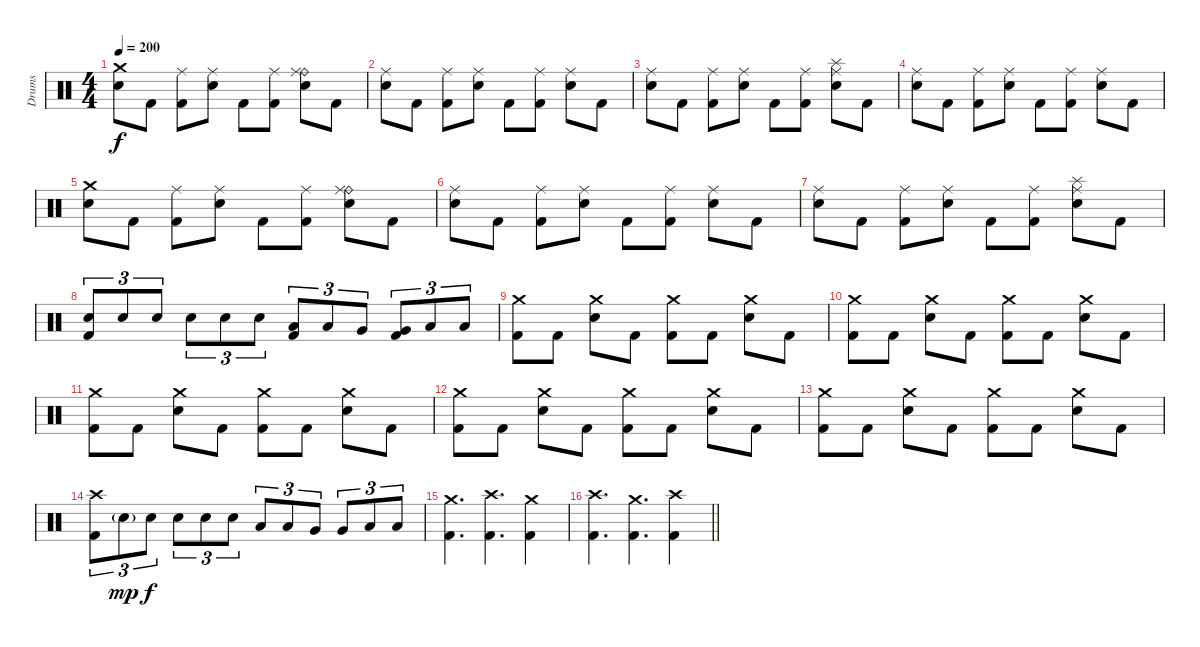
\track ("Drums" "Drums") {instrument percussion}
\staff {score}
\articulation defaults
\ts (4 4)
\tempo 200
\clef neutral
\ks c
("Crash medium (hit)" "Electric Snare (hit)").8{dy f} "Kick (hit) 2".8 ("Ride (middle)" "Kick (hit) 2").8 ("Ride (middle)" "Electric Snare (hit)").8 "Kick (hit) 2".8 ("Ride (middle)" "Kick (hit) 2").8 ("Ride (bell)" "Ride (middle)" "Electric Snare (hit)").8 "Kick (hit) 2".8 |
("Ride (middle)" "Electric Snare (hit)").8 "Kick (hit) 2".8 ("Ride (middle)" "Kick (hit) 2").8 ("Ride (middle)" "Electric Snare (hit)").8 "Kick (hit) 2".8 ("Ride (middle)" "Kick (hit) 2").8 ("Ride (middle)" "Electric Snare (hit)").8 "Kick (hit) 2".8 |
("Ride (middle)" "Electric Snare (hit)").8 "Kick (hit) 2".8 ("Ride (middle)" "Kick (hit) 2").8 ("Ride (middle)" "Electric Snare (hit)").8 "Kick (hit) 2".8 ("Ride (middle)" "Kick (hit) 2").8 ("Ride (middle)" "Splash (hit)" "Electric Snare (hit)").8 "Kick (hit) 2".8 |
("Ride (middle)" "Electric Snare (hit)").8 "Kick (hit) 2".8 ("Ride (middle)" "Kick (hit) 2").8 ("Ride (middle)" "Electric Snare (hit)").8 "Kick (hit) 2".8 ("Ride (middle)" "Kick (hit) 2").8 ("Ride (middle)" "Electric Snare (hit)").8 "Kick (hit) 2".8 |
("Crash medium (hit)" "Electric Snare (hit)").8 "Kick (hit) 2".8 ("Ride (middle)" "Kick (hit) 2").8 ("Ride (middle)" "Electric Snare (hit)").8 "Kick (hit) 2".8 ("Ride (middle)" "Kick (hit) 2").8 ("Ride (bell)" "Ride (middle)" "Electric Snare (hit)").8 "Kick (hit) 2".8 |
("Ride (middle)" "Electric Snare (hit)").8 "Kick (hit) 2".8 ("Ride (middle)" "Kick (hit) 2").8 ("Ride (middle)" "Electric Snare (hit)").8 "Kick (hit) 2".8 ("Ride (middle)" "Kick (hit) 2").8 ("Ride (middle)" "Electric Snare (hit)").8 "Kick (hit) 2".8 |
("Ride (middle)" "Electric Snare (hit)").8 "Kick (hit) 2".8 ("Ride (middle)" "Kick (hit) 2").8 ("Ride (middle)" "Electric Snare (hit)").8 "Kick (hit) 2".8 ("Ride (middle)" "Kick (hit) 2").8 ("Ride (middle)" "Splash (hit)" "Electric Snare (hit)").8 "Kick (hit) 2".8 |
("Electric Snare (hit)" "Kick (hit) 2").8{tu (3 2)} "Electric Snare (hit)".8{tu (3 2)} "Electric Snare (hit)".8{tu (3 2)} "Electric Snare (hit)".8{tu (3 2)} "Electric Snare (hit)".8{tu (3 2)} "Electric Snare (hit)".8{tu (3 2)} ("Low Tom (hit)" "Kick (hit) 2").8{tu (3 2)} "Low Tom (hit)".8{tu (3 2)} "Very Low Tom (hit)".8{tu (3 2)} ("Very Low Tom (hit)" "Kick (hit) 2").8{tu (3 2)} "Low Floor Tom (hit)".8{tu (3 2)} "Low Floor Tom (hit)".8{tu (3 2)} |
("Crash medium (hit)" "Kick (hit) 2").8 "Kick (hit) 2".8 ("Crash medium (hit)" "Electric Snare (hit)").8 "Kick (hit) 2".8 ("Crash medium (hit)" "Kick (hit) 2").8 "Kick (hit) 2".8 ("Crash medium (hit)" "Electric Snare (hit)").8 "Kick (hit) 2".8 |
("Crash medium (hit)" "Kick (hit) 2").8 "Kick (hit) 2".8 ("Crash medium (hit)" "Electric Snare (hit)").8 "Kick (hit) 2".8 ("Crash medium (hit)" "Kick (hit) 2").8 "Kick (hit) 2".8 ("Crash medium (hit)" "Electric Snare (hit)").8 "Kick (hit) 2".8 |
("Crash medium (hit)" "Kick (hit) 2").8 "Kick (hit) 2".8 ("Crash medium (hit)" "Electric Snare (hit)").8 "Kick (hit) 2".8 ("Crash medium (hit)" "Kick (hit) 2").8 "Kick (hit) 2".8 ("Crash medium (hit)" "Electric Snare (hit)").8 "Kick (hit) 2".8 |
("Crash medium (hit)" "Kick (hit) 2").8 "Kick (hit) 2".8 ("Crash medium (hit)" "Electric Snare (hit)").8 "Kick (hit) 2".8 ("Crash medium (hit)" "Kick (hit) 2").8 "Kick (hit) 2".8 ("Crash medium (hit)" "Electric Snare (hit)").8 "Kick (hit) 2".8 |
("Crash medium (hit)" "Kick (hit) 2").8 "Kick (hit) 2".8 ("Crash medium (hit)" "Electric Snare (hit)").8 "Kick (hit) 2".8 ("Crash medium (hit)" "Kick (hit) 2").8 "Kick (hit) 2".8 ("Crash medium (hit)" "Electric Snare (hit)").8 "Kick (hit) 2".8 |
("Crash high (hit)" "Kick (hit) 2").8{tu (3 2)} "Electric Snare (hit)"{g}.8{tu (3 2) dy mp} "Electric Snare (hit)".8{tu (3 2) dy f} "Electric Snare (hit)".8{tu (3 2)} "Electric Snare (hit)".8{tu (3 2)} "Electric Snare (hit)".8{tu (3 2)} "Low Tom (hit)".8{tu (3 2)} "Low Tom (hit)".8{tu (3 2)} "Very Low Tom (hit)".8{tu (3 2)} "Very Low Tom (hit)".8{tu (3 2)} "Low Floor Tom (hit)".8{tu (3 2)} "Low Floor Tom (hit)".8{tu (3 2)} |
("Crash medium (hit)" "Kick (hit) 2").4{d} ("Crash high (hit)" "Kick (hit) 2").4{d} ("Crash medium (hit)" "Kick (hit) 2").4 |
\barLineRight lightlight
("Crash high (hit)" "Kick (hit) 2").4{d} ("Crash medium (hit)" "Kick (hit) 2").4{d} ("Crash high (hit)" "Kick (hit) 2").4
